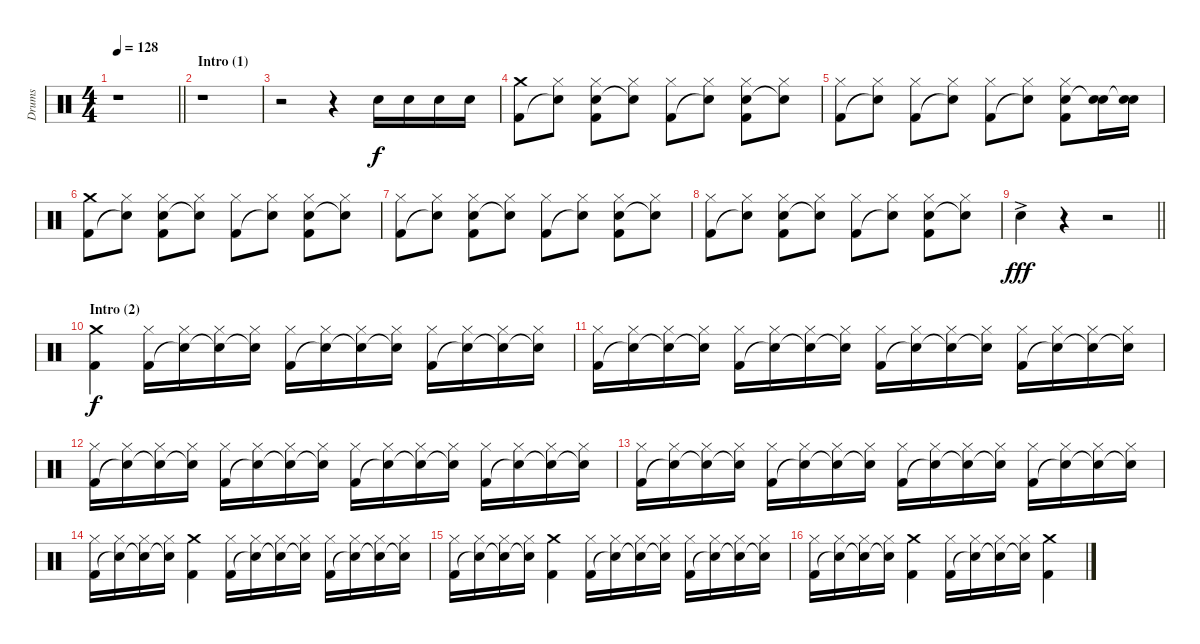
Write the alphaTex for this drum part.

\track ("Drums" "Drums") {instrument percussion}
\staff {score}
\articulation defaults
\ts (4 4)
\tempo 128
\clef neutral
\barLineRight lightlight
\ks aminor
r.1{dy f} |
\section ("" "Intro (1)")
r.1 |
r.2 r.4 "Electric Snare (hit)".16 "Electric Snare (hit)".16 "Electric Snare (hit)".16 "Electric Snare (hit)".16 |
("Crash medium (hit)" "Kick (hit) 2").8 ("Hi-Hat (closed)" "Snare (hit)"{t}).8 ("Hi-Hat (closed)" "Electric Snare (hit)" "Kick (hit) 2").8 ("Hi-Hat (closed)" "Snare (hit)"{t}).8 ("Hi-Hat (closed)" "Kick (hit) 2").8 ("Hi-Hat (closed)" "Snare (hit)"{t}).8 ("Hi-Hat (closed)" "Electric Snare (hit)" "Kick (hit) 2").8 ("Hi-Hat (closed)" "Snare (hit)"{t}).8 |
("Hi-Hat (closed)" "Kick (hit) 2").8 ("Hi-Hat (closed)" "Snare (hit)"{t}).8 ("Hi-Hat (closed)" "Kick (hit) 2").8 ("Hi-Hat (closed)" "Snare (hit)"{t}).8 ("Hi-Hat (closed)" "Kick (hit) 2").8 ("Hi-Hat (closed)" "Snare (hit)"{t}).8 ("Hi-Hat (closed)" "Electric Snare (hit)" "Kick (hit) 2").8 ("Electric Snare (hit)" "Snare (hit)"{t}).16 ("Electric Snare (hit)" "Snare (hit)"{t}).16 |
("Crash medium (hit)" "Kick (hit) 2").8 ("Hi-Hat (closed)" "Snare (hit)"{t}).8 ("Hi-Hat (closed)" "Electric Snare (hit)" "Kick (hit) 2").8 ("Hi-Hat (closed)" "Snare (hit)"{t}).8 ("Hi-Hat (closed)" "Kick (hit) 2").8 ("Hi-Hat (closed)" "Snare (hit)"{t}).8 ("Hi-Hat (closed)" "Electric Snare (hit)" "Kick (hit) 2").8 ("Hi-Hat (closed)" "Snare (hit)"{t}).8 |
("Hi-Hat (closed)" "Kick (hit) 2").8 ("Hi-Hat (closed)" "Snare (hit)"{t}).8 ("Hi-Hat (closed)" "Electric Snare (hit)" "Kick (hit) 2").8 ("Hi-Hat (closed)" "Snare (hit)"{t}).8 ("Hi-Hat (closed)" "Kick (hit) 2").8 ("Hi-Hat (closed)" "Snare (hit)"{t}).8 ("Hi-Hat (closed)" "Electric Snare (hit)" "Kick (hit) 2").8 ("Hi-Hat (closed)" "Snare (hit)"{t}).8 |
("Hi-Hat (closed)" "Kick (hit) 2").8 ("Hi-Hat (closed)" "Snare (hit)"{t}).8 ("Hi-Hat (closed)" "Electric Snare (hit)" "Kick (hit) 2").8 ("Hi-Hat (closed)" "Snare (hit)"{t}).8 ("Hi-Hat (closed)" "Kick (hit) 2").8 ("Hi-Hat (closed)" "Snare (hit)"{t}).8 ("Hi-Hat (closed)" "Electric Snare (hit)" "Kick (hit) 2").8 ("Hi-Hat (closed)" "Snare (hit)"{t}).8 |
\barLineRight lightlight "Electric Snare (hit)"{ac}.4{dy fff}
r.4 r.2 |
\section ("" "Intro (2)")
("Crash medium (hit)" "Kick (hit) 2").4{dy f} ("Hi-Hat (closed)" "Kick (hit) 2").16 ("Hi-Hat (closed)" "Snare (hit)"{t}).16 ("Hi-Hat (closed)" "Snare (hit)"{t}).16 ("Hi-Hat (closed)" "Snare (hit)"{t}).16 ("Hi-Hat (closed)" "Kick (hit) 2").16 ("Hi-Hat (closed)" "Snare (hit)"{t}).16 ("Hi-Hat (closed)" "Snare (hit)"{t}).16 ("Hi-Hat (closed)" "Snare (hit)"{t}).16 ("Hi-Hat (closed)" "Kick (hit) 2").16 ("Hi-Hat (closed)" "Snare (hit)"{t}).16 ("Hi-Hat (closed)" "Snare (hit)"{t}).16 ("Hi-Hat (closed)" "Snare (hit)"{t}).16 |
("Hi-Hat (closed)" "Kick (hit) 2").16 ("Hi-Hat (closed)" "Snare (hit)"{t}).16 ("Hi-Hat (closed)" "Snare (hit)"{t}).16 ("Hi-Hat (closed)" "Snare (hit)"{t}).16 ("Hi-Hat (closed)" "Kick (hit) 2").16 ("Hi-Hat (closed)" "Snare (hit)"{t}).16 ("Hi-Hat (closed)" "Snare (hit)"{t}).16 ("Hi-Hat (closed)" "Snare (hit)"{t}).16 ("Hi-Hat (closed)" "Kick (hit) 2").16 ("Hi-Hat (closed)" "Snare (hit)"{t}).16 ("Hi-Hat (closed)" "Snare (hit)"{t}).16 ("Hi-Hat (closed)" "Snare (hit)"{t}).16 ("Hi-Hat (closed)" "Kick (hit) 2").16 ("Hi-Hat (closed)" "Snare (hit)"{t}).16 ("Hi-Hat (closed)" "Snare (hit)"{t}).16 ("Hi-Hat (closed)" "Snare (hit)"{t}).16 |
("Hi-Hat (closed)" "Kick (hit) 2").16 ("Hi-Hat (closed)" "Snare (hit)"{t}).16 ("Hi-Hat (closed)" "Snare (hit)"{t}).16 ("Hi-Hat (closed)" "Snare (hit)"{t}).16 ("Hi-Hat (closed)" "Kick (hit) 2").16 ("Hi-Hat (closed)" "Snare (hit)"{t}).16 ("Hi-Hat (closed)" "Snare (hit)"{t}).16 ("Hi-Hat (closed)" "Snare (hit)"{t}).16 ("Hi-Hat (closed)" "Kick (hit) 2").16 ("Hi-Hat (closed)" "Snare (hit)"{t}).16 ("Hi-Hat (closed)" "Snare (hit)"{t}).16 ("Hi-Hat (closed)" "Snare (hit)"{t}).16 ("Hi-Hat (closed)" "Kick (hit) 2").16 ("Hi-Hat (closed)" "Snare (hit)"{t}).16 ("Hi-Hat (closed)" "Snare (hit)"{t}).16 ("Hi-Hat (closed)" "Snare (hit)"{t}).16 |
("Hi-Hat (closed)" "Kick (hit) 2").16 ("Hi-Hat (closed)" "Snare (hit)"{t}).16 ("Hi-Hat (closed)" "Snare (hit)"{t}).16 ("Hi-Hat (closed)" "Snare (hit)"{t}).16 ("Hi-Hat (closed)" "Kick (hit) 2").16 ("Hi-Hat (closed)" "Snare (hit)"{t}).16 ("Hi-Hat (closed)" "Snare (hit)"{t}).16 ("Hi-Hat (closed)" "Snare (hit)"{t}).16 ("Hi-Hat (closed)" "Kick (hit) 2").16 ("Hi-Hat (closed)" "Snare (hit)"{t}).16 ("Hi-Hat (closed)" "Snare (hit)"{t}).16 ("Hi-Hat (closed)" "Snare (hit)"{t}).16 ("Hi-Hat (closed)" "Kick (hit) 2").16 ("Hi-Hat (closed)" "Snare (hit)"{t}).16 ("Hi-Hat (closed)" "Snare (hit)"{t}).16 ("Hi-Hat (closed)" "Snare (hit)"{t}).16 |
("Hi-Hat (closed)" "Kick (hit) 2").16 ("Hi-Hat (closed)" "Snare (hit)"{t}).16 ("Hi-Hat (closed)" "Snare (hit)"{t}).16 ("Hi-Hat (closed)" "Snare (hit)"{t}).16 ("Crash medium (hit)" "Kick (hit) 2").4 ("Hi-Hat (closed)" "Kick (hit) 2").16 ("Hi-Hat (closed)" "Snare (hit)"{t}).16 ("Hi-Hat (closed)" "Snare (hit)"{t}).16 ("Hi-Hat (closed)" "Snare (hit)"{t}).16 ("Hi-Hat (closed)" "Kick (hit) 2").16 ("Hi-Hat (closed)" "Snare (hit)"{t}).16 ("Hi-Hat (closed)" "Snare (hit)"{t}).16 ("Hi-Hat (closed)" "Snare (hit)"{t}).16 |
("Hi-Hat (closed)" "Kick (hit) 2").16 ("Hi-Hat (closed)" "Snare (hit)"{t}).16 ("Hi-Hat (closed)" "Snare (hit)"{t}).16 ("Hi-Hat (closed)" "Snare (hit)"{t}).16 ("Crash medium (hit)" "Kick (hit) 2").4 ("Hi-Hat (closed)" "Kick (hit) 2").16 ("Hi-Hat (closed)" "Snare (hit)"{t}).16 ("Hi-Hat (closed)" "Snare (hit)"{t}).16 ("Hi-Hat (closed)" "Snare (hit)"{t}).16 ("Hi-Hat (closed)" "Kick (hit) 2").16 ("Hi-Hat (closed)" "Snare (hit)"{t}).16 ("Hi-Hat (closed)" "Snare (hit)"{t}).16 ("Hi-Hat (closed)" "Snare (hit)"{t}).16 |
("Hi-Hat (closed)" "Kick (hit) 2").16 ("Hi-Hat (closed)" "Snare (hit)"{t}).16 ("Hi-Hat (closed)" "Snare (hit)"{t}).16 ("Hi-Hat (closed)" "Snare (hit)"{t}).16 ("Crash medium (hit)" "Kick (hit) 2").4 ("Hi-Hat (closed)" "Kick (hit) 2").16 ("Hi-Hat (closed)" "Snare (hit)"{t}).16 ("Hi-Hat (closed)" "Snare (hit)"{t}).16 ("Hi-Hat (closed)" "Snare (hit)"{t}).16 ("Crash medium (hit)" "Kick (hit) 2").4
